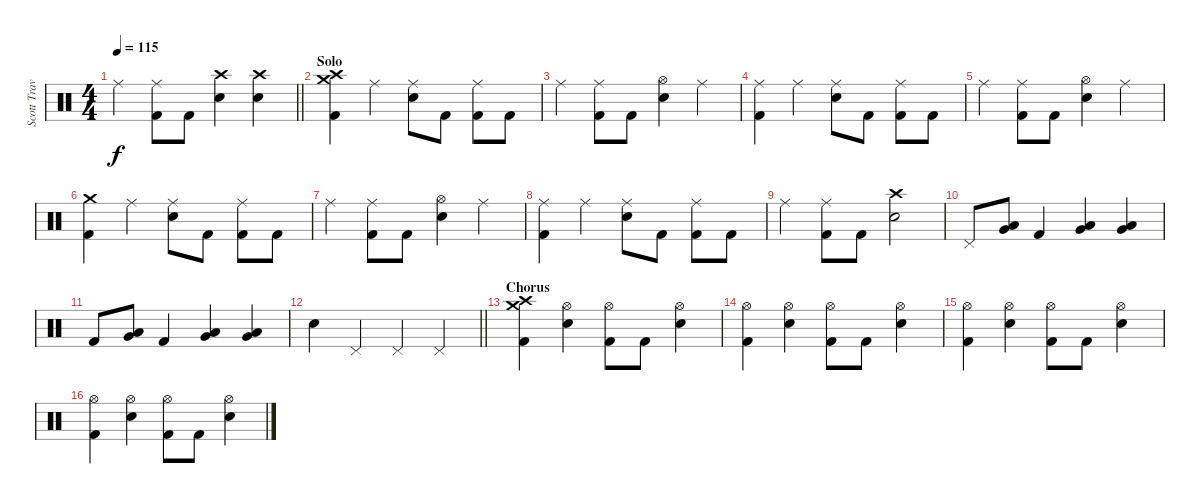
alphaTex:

\track ("Scott Travis" "Scott Trav") {instrument percussion}
\staff {score}
\articulation defaults
\ts (4 4)
\tempo 115
\clef neutral
\barLineRight lightlight
\ks c "Ride (middle)".4{dy f}
("Ride (middle)" "Kick (hit) 2").8 "Kick (hit) 2".8 ("Crash high (hit)" "Snare (hit) 2").4 ("Crash high (hit)" "Snare (hit) 2").4 |
\section ("" "Solo")
("Crash medium (hit)" "Crash high (hit)" "Kick (hit) 2").4 "Ride (middle)".4 ("Ride (middle)" "Snare (hit) 2").8 "Kick (hit) 2".8 ("Ride (middle)" "Kick (hit) 2").8 "Kick (hit) 2".8 |
"Ride (middle)".4 ("Ride (middle)" "Kick (hit) 2").8 "Kick (hit) 2".8 ("Hi-Hat (open)" "Snare (hit) 2").4 "Ride (middle)".4 |
("Ride (middle)" "Kick (hit) 2").4 "Ride (middle)".4 ("Ride (middle)" "Snare (hit) 2").8 "Kick (hit) 2".8 ("Ride (middle)" "Kick (hit) 2").8 "Kick (hit) 2".8 |
"Ride (middle)".4 ("Ride (middle)" "Kick (hit) 2").8 "Kick (hit) 2".8 ("Hi-Hat (open)" "Snare (hit) 2").4 "Ride (middle)".4 |
("Crash medium (hit)" "Kick (hit) 2").4 "Ride (middle)".4 ("Ride (middle)" "Snare (hit) 2").8 "Kick (hit) 2".8 ("Ride (middle)" "Kick (hit) 2").8 "Kick (hit) 2".8 |
"Ride (middle)".4 ("Ride (middle)" "Kick (hit) 2").8 "Kick (hit) 2".8 ("Hi-Hat (open)" "Snare (hit) 2").4 "Ride (middle)".4 |
("Ride (middle)" "Kick (hit) 2").4 "Ride (middle)".4 ("Ride (middle)" "Snare (hit) 2").8 "Kick (hit) 2".8 ("Ride (middle)" "Kick (hit) 2").8 "Kick (hit) 2".8 |
"Ride (middle)".4 ("Ride (middle)" "Kick (hit) 2").8 "Kick (hit) 2".8 ("Crash high (hit)" "Snare (hit) 2").2 |
"Pedal Hi-Hat (hit)".8 ("Very Low Tom (hit)" "Low Tom (hit)").8 "Kick (hit) 2".4 ("Very Low Tom (hit)" "Low Floor Tom (hit)").4 ("Very Low Tom (hit)" "Low Floor Tom (hit)").4 |
"Kick (hit) 2".8 ("Very Low Tom (hit)" "Low Tom (hit)").8 "Kick (hit) 2".4 ("Very Low Tom (hit)" "Low Floor Tom (hit)").4 ("Very Low Tom (hit)" "Low Floor Tom (hit)").4 |
\barLineRight lightlight "Snare (hit) 2".4 "Pedal Hi-Hat (hit)".4 "Pedal Hi-Hat (hit)".4 "Pedal Hi-Hat (hit)".4
|
\section ("" "Chorus")
("Crash medium (hit)" "Crash high (hit)" "Kick (hit) 2").4 ("Hi-Hat (open)" "Snare (hit) 2").4 ("Hi-Hat (open)" "Kick (hit) 2").8 "Kick (hit) 2".8 ("Hi-Hat (open)" "Snare (hit) 2").4 |
("Hi-Hat (open)" "Kick (hit) 2").4 ("Hi-Hat (open)" "Snare (hit) 2").4 ("Hi-Hat (open)" "Kick (hit) 2").8 "Kick (hit) 2".8 ("Hi-Hat (open)" "Snare (hit) 2").4 |
("Hi-Hat (open)" "Kick (hit) 2").4 ("Hi-Hat (open)" "Snare (hit) 2").4 ("Hi-Hat (open)" "Kick (hit) 2").8 "Kick (hit) 2".8 ("Hi-Hat (open)" "Snare (hit) 2").4 |
("Hi-Hat (open)" "Kick (hit) 2").4 ("Hi-Hat (open)" "Snare (hit) 2").4 ("Hi-Hat (open)" "Kick (hit) 2").8 "Kick (hit) 2".8 ("Hi-Hat (open)" "Snare (hit) 2").4
